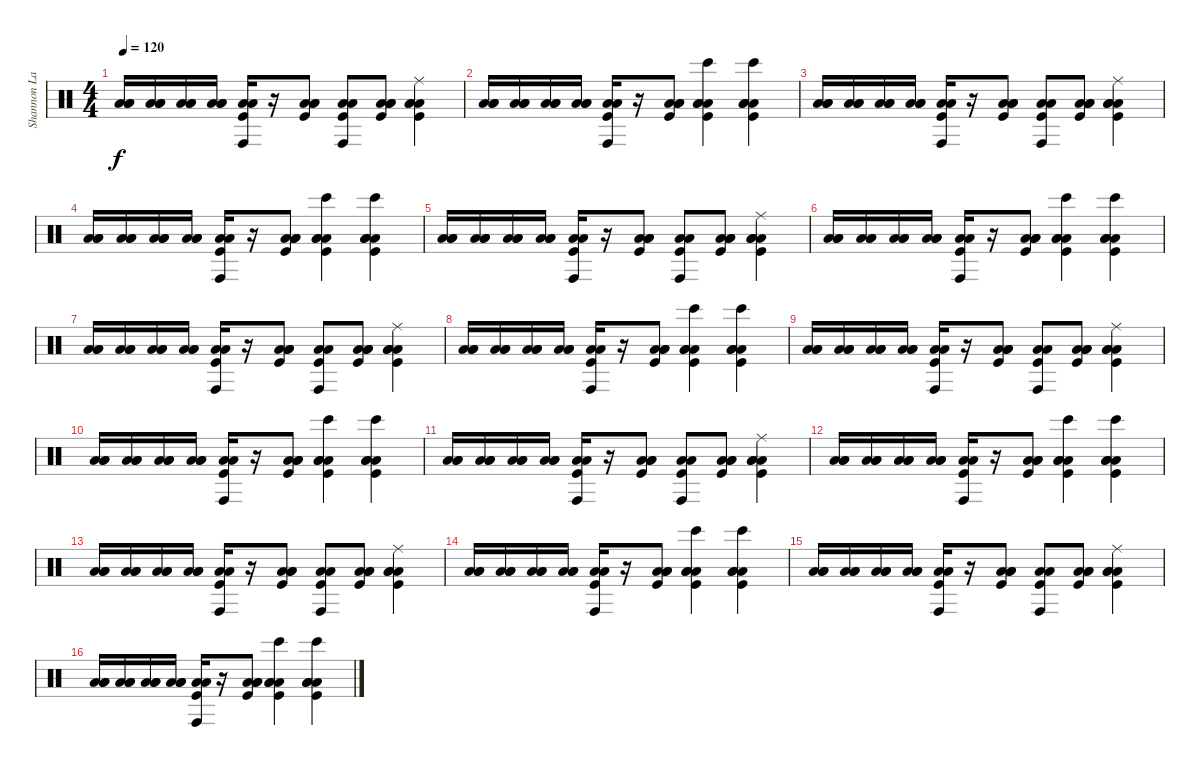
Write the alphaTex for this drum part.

\track ("Shannon Larkin" "Shannon La") {instrument percussion}
\staff {score}
\articulation defaults
\ts (4 4)
\tempo 120
\clef neutral
\ks c
("Low Floor Tom (hit)" "Low Floor Tom (hit)" "Low Tom (hit)").16{dy f} ("Low Floor Tom (hit)" "Low Floor Tom (hit)" "Low Tom (hit)").16 ("Low Floor Tom (hit)" "Low Floor Tom (hit)" "Low Tom (hit)").16 ("Low Floor Tom (hit)" "Low Floor Tom (hit)" "Low Tom (hit)").16 ("Low Floor Tom (hit)" "Low Floor Tom (hit)" "Conga high (hit)" "Kick (hit)").16 r.16 ("Low Floor Tom (hit)" "Low Floor Tom (hit)" "Low Tom (hit)" "Kick (hit)").8 ("Low Floor Tom (hit)" "Low Floor Tom (hit)" "Conga high (hit)" "Kick (hit)").8 ("Low Floor Tom (hit)" "Low Floor Tom (hit)" "Low Tom (hit)" "Kick (hit)").8 ("Low Floor Tom (hit)" "Low Tom (hit)" "Low Floor Tom (hit)" "Ride (middle)" "Kick (hit)").4 |
("Low Floor Tom (hit)" "Low Floor Tom (hit)" "Low Tom (hit)").16 ("Low Floor Tom (hit)" "Low Floor Tom (hit)" "Low Tom (hit)").16 ("Low Floor Tom (hit)" "Low Floor Tom (hit)" "Low Tom (hit)").16 ("Low Floor Tom (hit)" "Low Floor Tom (hit)" "Low Tom (hit)").16 ("Low Floor Tom (hit)" "Low Floor Tom (hit)" "Conga high (hit)" "Kick (hit)").16 r.16 ("Low Floor Tom (hit)" "Low Floor Tom (hit)" "Low Tom (hit)" "Kick (hit)").8 ("Low Floor Tom (hit)" "Low Tom (hit)" "Low Floor Tom (hit)" "Bongo High (hit)" "Kick (hit)").4 ("Low Floor Tom (hit)" "Low Tom (hit)" "Low Floor Tom (hit)" "Bongo High (hit)" "Kick (hit)").4 |
("Low Floor Tom (hit)" "Low Floor Tom (hit)" "Low Tom (hit)").16 ("Low Floor Tom (hit)" "Low Floor Tom (hit)" "Low Tom (hit)").16 ("Low Floor Tom (hit)" "Low Floor Tom (hit)" "Low Tom (hit)").16 ("Low Floor Tom (hit)" "Low Floor Tom (hit)" "Low Tom (hit)").16 ("Low Floor Tom (hit)" "Low Floor Tom (hit)" "Conga high (hit)" "Kick (hit)").16 r.16 ("Low Floor Tom (hit)" "Low Floor Tom (hit)" "Low Tom (hit)" "Kick (hit)").8 ("Low Floor Tom (hit)" "Low Floor Tom (hit)" "Conga high (hit)" "Kick (hit)").8 ("Low Floor Tom (hit)" "Low Floor Tom (hit)" "Low Tom (hit)" "Kick (hit)").8 ("Low Floor Tom (hit)" "Low Tom (hit)" "Low Floor Tom (hit)" "Ride (middle)" "Kick (hit)").4 |
("Low Floor Tom (hit)" "Low Floor Tom (hit)" "Low Tom (hit)").16 ("Low Floor Tom (hit)" "Low Floor Tom (hit)" "Low Tom (hit)").16 ("Low Floor Tom (hit)" "Low Floor Tom (hit)" "Low Tom (hit)").16 ("Low Floor Tom (hit)" "Low Floor Tom (hit)" "Low Tom (hit)").16 ("Low Floor Tom (hit)" "Low Floor Tom (hit)" "Conga high (hit)" "Kick (hit)").16 r.16 ("Low Floor Tom (hit)" "Low Floor Tom (hit)" "Low Tom (hit)" "Kick (hit)").8 ("Low Floor Tom (hit)" "Low Tom (hit)" "Low Floor Tom (hit)" "Bongo High (hit)" "Kick (hit)").4 ("Low Floor Tom (hit)" "Low Tom (hit)" "Low Floor Tom (hit)" "Bongo High (hit)" "Kick (hit)").4 |
("Low Floor Tom (hit)" "Low Floor Tom (hit)" "Low Tom (hit)").16 ("Low Floor Tom (hit)" "Low Floor Tom (hit)" "Low Tom (hit)").16 ("Low Floor Tom (hit)" "Low Floor Tom (hit)" "Low Tom (hit)").16 ("Low Floor Tom (hit)" "Low Floor Tom (hit)" "Low Tom (hit)").16 ("Low Floor Tom (hit)" "Low Floor Tom (hit)" "Conga high (hit)" "Kick (hit)").16 r.16 ("Low Floor Tom (hit)" "Low Floor Tom (hit)" "Low Tom (hit)" "Kick (hit)").8 ("Low Floor Tom (hit)" "Low Floor Tom (hit)" "Conga high (hit)" "Kick (hit)").8 ("Low Floor Tom (hit)" "Low Floor Tom (hit)" "Low Tom (hit)" "Kick (hit)").8 ("Low Floor Tom (hit)" "Low Tom (hit)" "Low Floor Tom (hit)" "Ride (middle)" "Kick (hit)").4 |
("Low Floor Tom (hit)" "Low Floor Tom (hit)" "Low Tom (hit)").16 ("Low Floor Tom (hit)" "Low Floor Tom (hit)" "Low Tom (hit)").16 ("Low Floor Tom (hit)" "Low Floor Tom (hit)" "Low Tom (hit)").16 ("Low Floor Tom (hit)" "Low Floor Tom (hit)" "Low Tom (hit)").16 ("Low Floor Tom (hit)" "Low Floor Tom (hit)" "Conga high (hit)" "Kick (hit)").16 r.16 ("Low Floor Tom (hit)" "Low Floor Tom (hit)" "Low Tom (hit)" "Kick (hit)").8 ("Low Floor Tom (hit)" "Low Tom (hit)" "Low Floor Tom (hit)" "Bongo High (hit)" "Kick (hit)").4 ("Low Floor Tom (hit)" "Low Tom (hit)" "Low Floor Tom (hit)" "Bongo High (hit)" "Kick (hit)").4 |
("Low Floor Tom (hit)" "Low Floor Tom (hit)" "Low Tom (hit)").16 ("Low Floor Tom (hit)" "Low Floor Tom (hit)" "Low Tom (hit)").16 ("Low Floor Tom (hit)" "Low Floor Tom (hit)" "Low Tom (hit)").16 ("Low Floor Tom (hit)" "Low Floor Tom (hit)" "Low Tom (hit)").16 ("Low Floor Tom (hit)" "Low Floor Tom (hit)" "Conga high (hit)" "Kick (hit)").16 r.16 ("Low Floor Tom (hit)" "Low Floor Tom (hit)" "Low Tom (hit)" "Kick (hit)").8 ("Low Floor Tom (hit)" "Low Floor Tom (hit)" "Conga high (hit)" "Kick (hit)").8 ("Low Floor Tom (hit)" "Low Floor Tom (hit)" "Low Tom (hit)" "Kick (hit)").8 ("Low Floor Tom (hit)" "Low Tom (hit)" "Low Floor Tom (hit)" "Ride (middle)" "Kick (hit)").4 |
("Low Floor Tom (hit)" "Low Floor Tom (hit)" "Low Tom (hit)").16 ("Low Floor Tom (hit)" "Low Floor Tom (hit)" "Low Tom (hit)").16 ("Low Floor Tom (hit)" "Low Floor Tom (hit)" "Low Tom (hit)").16 ("Low Floor Tom (hit)" "Low Floor Tom (hit)" "Low Tom (hit)").16 ("Low Floor Tom (hit)" "Low Floor Tom (hit)" "Conga high (hit)" "Kick (hit)").16 r.16 ("Low Floor Tom (hit)" "Low Floor Tom (hit)" "Low Tom (hit)" "Kick (hit)").8 ("Low Floor Tom (hit)" "Low Tom (hit)" "Low Floor Tom (hit)" "Bongo High (hit)" "Kick (hit)").4 ("Low Floor Tom (hit)" "Low Tom (hit)" "Low Floor Tom (hit)" "Bongo High (hit)" "Kick (hit)").4 |
("Low Floor Tom (hit)" "Low Floor Tom (hit)" "Low Tom (hit)").16 ("Low Floor Tom (hit)" "Low Floor Tom (hit)" "Low Tom (hit)").16 ("Low Floor Tom (hit)" "Low Floor Tom (hit)" "Low Tom (hit)").16 ("Low Floor Tom (hit)" "Low Floor Tom (hit)" "Low Tom (hit)").16 ("Low Floor Tom (hit)" "Low Floor Tom (hit)" "Conga high (hit)" "Kick (hit)").16 r.16 ("Low Floor Tom (hit)" "Low Floor Tom (hit)" "Low Tom (hit)" "Kick (hit)").8 ("Low Floor Tom (hit)" "Low Floor Tom (hit)" "Conga high (hit)" "Kick (hit)").8 ("Low Floor Tom (hit)" "Low Floor Tom (hit)" "Low Tom (hit)" "Kick (hit)").8 ("Low Floor Tom (hit)" "Low Tom (hit)" "Low Floor Tom (hit)" "Ride (middle)" "Kick (hit)").4 |
("Low Floor Tom (hit)" "Low Floor Tom (hit)" "Low Tom (hit)").16 ("Low Floor Tom (hit)" "Low Floor Tom (hit)" "Low Tom (hit)").16 ("Low Floor Tom (hit)" "Low Floor Tom (hit)" "Low Tom (hit)").16 ("Low Floor Tom (hit)" "Low Floor Tom (hit)" "Low Tom (hit)").16 ("Low Floor Tom (hit)" "Low Floor Tom (hit)" "Conga high (hit)" "Kick (hit)").16 r.16 ("Low Floor Tom (hit)" "Low Floor Tom (hit)" "Low Tom (hit)" "Kick (hit)").8 ("Low Floor Tom (hit)" "Low Tom (hit)" "Low Floor Tom (hit)" "Bongo High (hit)" "Kick (hit)").4 ("Low Floor Tom (hit)" "Low Tom (hit)" "Low Floor Tom (hit)" "Bongo High (hit)" "Kick (hit)").4 |
("Low Floor Tom (hit)" "Low Floor Tom (hit)" "Low Tom (hit)").16 ("Low Floor Tom (hit)" "Low Floor Tom (hit)" "Low Tom (hit)").16 ("Low Floor Tom (hit)" "Low Floor Tom (hit)" "Low Tom (hit)").16 ("Low Floor Tom (hit)" "Low Floor Tom (hit)" "Low Tom (hit)").16 ("Low Floor Tom (hit)" "Low Floor Tom (hit)" "Conga high (hit)" "Kick (hit)").16 r.16 ("Low Floor Tom (hit)" "Low Floor Tom (hit)" "Low Tom (hit)" "Kick (hit)").8 ("Low Floor Tom (hit)" "Low Floor Tom (hit)" "Conga high (hit)" "Kick (hit)").8 ("Low Floor Tom (hit)" "Low Floor Tom (hit)" "Low Tom (hit)" "Kick (hit)").8 ("Low Floor Tom (hit)" "Low Tom (hit)" "Low Floor Tom (hit)" "Ride (middle)" "Kick (hit)").4 |
("Low Floor Tom (hit)" "Low Floor Tom (hit)" "Low Tom (hit)").16 ("Low Floor Tom (hit)" "Low Floor Tom (hit)" "Low Tom (hit)").16 ("Low Floor Tom (hit)" "Low Floor Tom (hit)" "Low Tom (hit)").16 ("Low Floor Tom (hit)" "Low Floor Tom (hit)" "Low Tom (hit)").16 ("Low Floor Tom (hit)" "Low Floor Tom (hit)" "Conga high (hit)" "Kick (hit)").16 r.16 ("Low Floor Tom (hit)" "Low Floor Tom (hit)" "Low Tom (hit)" "Kick (hit)").8 ("Low Floor Tom (hit)" "Low Tom (hit)" "Low Floor Tom (hit)" "Bongo High (hit)" "Kick (hit)").4 ("Low Floor Tom (hit)" "Low Tom (hit)" "Low Floor Tom (hit)" "Bongo High (hit)" "Kick (hit)").4 |
("Low Floor Tom (hit)" "Low Floor Tom (hit)" "Low Tom (hit)").16 ("Low Floor Tom (hit)" "Low Floor Tom (hit)" "Low Tom (hit)").16 ("Low Floor Tom (hit)" "Low Floor Tom (hit)" "Low Tom (hit)").16 ("Low Floor Tom (hit)" "Low Floor Tom (hit)" "Low Tom (hit)").16 ("Low Floor Tom (hit)" "Low Floor Tom (hit)" "Conga high (hit)" "Kick (hit)").16 r.16 ("Low Floor Tom (hit)" "Low Floor Tom (hit)" "Low Tom (hit)" "Kick (hit)").8 ("Low Floor Tom (hit)" "Low Floor Tom (hit)" "Conga high (hit)" "Kick (hit)").8 ("Low Floor Tom (hit)" "Low Floor Tom (hit)" "Low Tom (hit)" "Kick (hit)").8 ("Low Floor Tom (hit)" "Low Tom (hit)" "Low Floor Tom (hit)" "Ride (middle)" "Kick (hit)").4 |
("Low Floor Tom (hit)" "Low Floor Tom (hit)" "Low Tom (hit)").16 ("Low Floor Tom (hit)" "Low Floor Tom (hit)" "Low Tom (hit)").16 ("Low Floor Tom (hit)" "Low Floor Tom (hit)" "Low Tom (hit)").16 ("Low Floor Tom (hit)" "Low Floor Tom (hit)" "Low Tom (hit)").16 ("Low Floor Tom (hit)" "Low Floor Tom (hit)" "Conga high (hit)" "Kick (hit)").16 r.16 ("Low Floor Tom (hit)" "Low Floor Tom (hit)" "Low Tom (hit)" "Kick (hit)").8 ("Low Floor Tom (hit)" "Low Tom (hit)" "Low Floor Tom (hit)" "Bongo High (hit)" "Kick (hit)").4 ("Low Floor Tom (hit)" "Low Tom (hit)" "Low Floor Tom (hit)" "Bongo High (hit)" "Kick (hit)").4 |
("Low Floor Tom (hit)" "Low Floor Tom (hit)" "Low Tom (hit)").16 ("Low Floor Tom (hit)" "Low Floor Tom (hit)" "Low Tom (hit)").16 ("Low Floor Tom (hit)" "Low Floor Tom (hit)" "Low Tom (hit)").16 ("Low Floor Tom (hit)" "Low Floor Tom (hit)" "Low Tom (hit)").16 ("Low Floor Tom (hit)" "Low Floor Tom (hit)" "Conga high (hit)" "Kick (hit)").16 r.16 ("Low Floor Tom (hit)" "Low Floor Tom (hit)" "Low Tom (hit)" "Kick (hit)").8 ("Low Floor Tom (hit)" "Low Floor Tom (hit)" "Conga high (hit)" "Kick (hit)").8 ("Low Floor Tom (hit)" "Low Floor Tom (hit)" "Low Tom (hit)" "Kick (hit)").8 ("Low Floor Tom (hit)" "Low Tom (hit)" "Low Floor Tom (hit)" "Ride (middle)" "Kick (hit)").4 |
("Low Floor Tom (hit)" "Low Floor Tom (hit)" "Low Tom (hit)").16 ("Low Floor Tom (hit)" "Low Floor Tom (hit)" "Low Tom (hit)").16 ("Low Floor Tom (hit)" "Low Floor Tom (hit)" "Low Tom (hit)").16 ("Low Floor Tom (hit)" "Low Floor Tom (hit)" "Low Tom (hit)").16 ("Low Floor Tom (hit)" "Low Floor Tom (hit)" "Conga high (hit)" "Kick (hit)").16 r.16 ("Low Floor Tom (hit)" "Low Floor Tom (hit)" "Low Tom (hit)" "Kick (hit)").8 ("Low Floor Tom (hit)" "Low Tom (hit)" "Low Floor Tom (hit)" "Bongo High (hit)" "Kick (hit)").4 ("Low Floor Tom (hit)" "Low Tom (hit)" "Low Floor Tom (hit)" "Bongo High (hit)" "Kick (hit)").4
